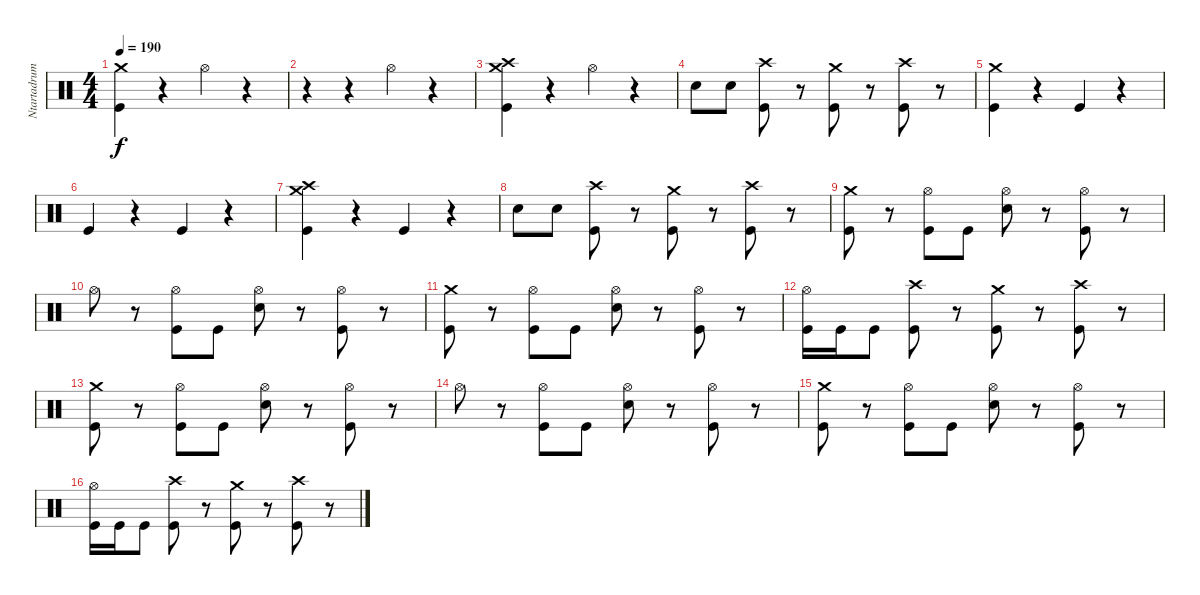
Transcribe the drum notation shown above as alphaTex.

\track ("Ntartadrum" "Ntartadrum") {instrument percussion}
\staff {score}
\articulation defaults
\ts (4 4)
\tempo 190
\clef neutral
\ks c
("Kick (hit)" "Crash medium (hit)").4{dy f} r.4 "Hi-Hat (open)".4 r.4 |
r.4 r.4 "Hi-Hat (open)".4 r.4 |
("Kick (hit)" "Crash medium (hit)" "Crash high (hit)").4 r.4 "Hi-Hat (open)".4 r.4 |
"Electric Snare (hit)".8 "Electric Snare (hit)".8 ("Kick (hit)" "Crash high (hit)").8 r.8 ("Kick (hit)" "Crash medium (hit)").8 r.8 ("Kick (hit)" "Crash high (hit)").8 r.8 |
("Kick (hit)" "Crash medium (hit)").4 r.4 "Kick (hit)".4 r.4 |
"Kick (hit)".4 r.4 "Kick (hit)".4 r.4 |
("Kick (hit)" "Crash medium (hit)" "Crash high (hit)").4 r.4 "Kick (hit)".4 r.4 |
"Electric Snare (hit)".8 "Electric Snare (hit)".8 ("Kick (hit)" "Crash high (hit)").8 r.8 ("Kick (hit)" "Crash medium (hit)").8 r.8 ("Kick (hit)" "Crash high (hit)").8 r.8 |
("Kick (hit)" "Crash medium (hit)").8 r.8 ("Kick (hit)" "Hi-Hat (open)").8 "Kick (hit)".8 ("Electric Snare (hit)" "Hi-Hat (open)").8 r.8 ("Kick (hit)" "Hi-Hat (open)").8 r.8 |
"Hi-Hat (open)".8 r.8 ("Kick (hit)" "Hi-Hat (open)").8 "Kick (hit)".8 ("Electric Snare (hit)" "Hi-Hat (open)").8 r.8 ("Kick (hit)" "Hi-Hat (open)").8 r.8 |
("Kick (hit)" "Crash medium (hit)").8 r.8 ("Kick (hit)" "Hi-Hat (open)").8 "Kick (hit)".8 ("Electric Snare (hit)" "Hi-Hat (open)").8 r.8 ("Kick (hit)" "Hi-Hat (open)").8 r.8 |
("Kick (hit)" "Hi-Hat (open)").16 "Kick (hit)".16 "Kick (hit)".8 ("Kick (hit)" "Crash high (hit)").8 r.8 ("Kick (hit)" "Crash medium (hit)").8 r.8 ("Kick (hit)" "Crash high (hit)").8 r.8 |
("Kick (hit)" "Crash medium (hit)").8 r.8 ("Kick (hit)" "Hi-Hat (open)").8 "Kick (hit)".8 ("Electric Snare (hit)" "Hi-Hat (open)").8 r.8 ("Kick (hit)" "Hi-Hat (open)").8 r.8 |
"Hi-Hat (open)".8 r.8 ("Kick (hit)" "Hi-Hat (open)").8 "Kick (hit)".8 ("Electric Snare (hit)" "Hi-Hat (open)").8 r.8 ("Kick (hit)" "Hi-Hat (open)").8 r.8 |
("Kick (hit)" "Crash medium (hit)").8 r.8 ("Kick (hit)" "Hi-Hat (open)").8 "Kick (hit)".8 ("Electric Snare (hit)" "Hi-Hat (open)").8 r.8 ("Kick (hit)" "Hi-Hat (open)").8 r.8 |
("Kick (hit)" "Hi-Hat (open)").16 "Kick (hit)".16 "Kick (hit)".8 ("Kick (hit)" "Crash high (hit)").8 r.8 ("Kick (hit)" "Crash medium (hit)").8 r.8 ("Kick (hit)" "Crash high (hit)").8 r.8
